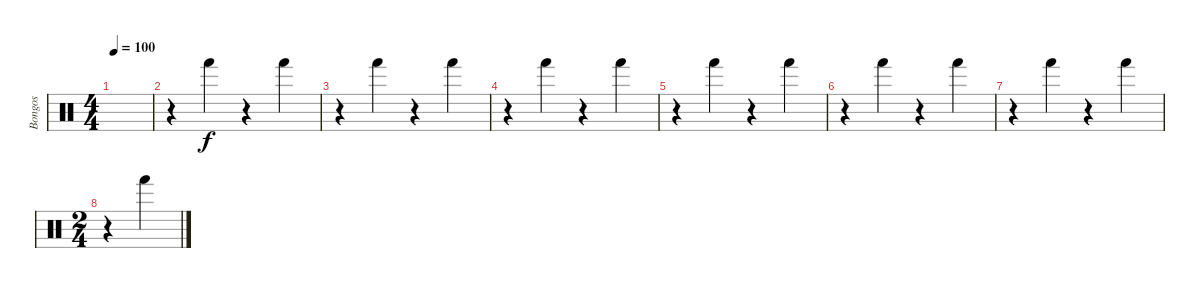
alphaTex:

\track ("Bongos" "Bongos") {instrument percussion}
\staff {score}
\articulation defaults
\ts (4 4)
\tempo 100
\clef neutral
\ks c
|
r.4 "Hand (hit)".4 r.4 "Hand (hit)".4 |
r.4 "Hand (hit)".4 r.4 "Hand (hit)".4 |
r.4 "Hand (hit)".4 r.4 "Hand (hit)".4 |
r.4 "Hand (hit)".4 r.4 "Hand (hit)".4 |
r.4 "Hand (hit)".4 r.4 "Hand (hit)".4 |
r.4 "Hand (hit)".4 r.4 "Hand (hit)".4 |
\ts (2 4)
r.4 "Hand (hit)".4
